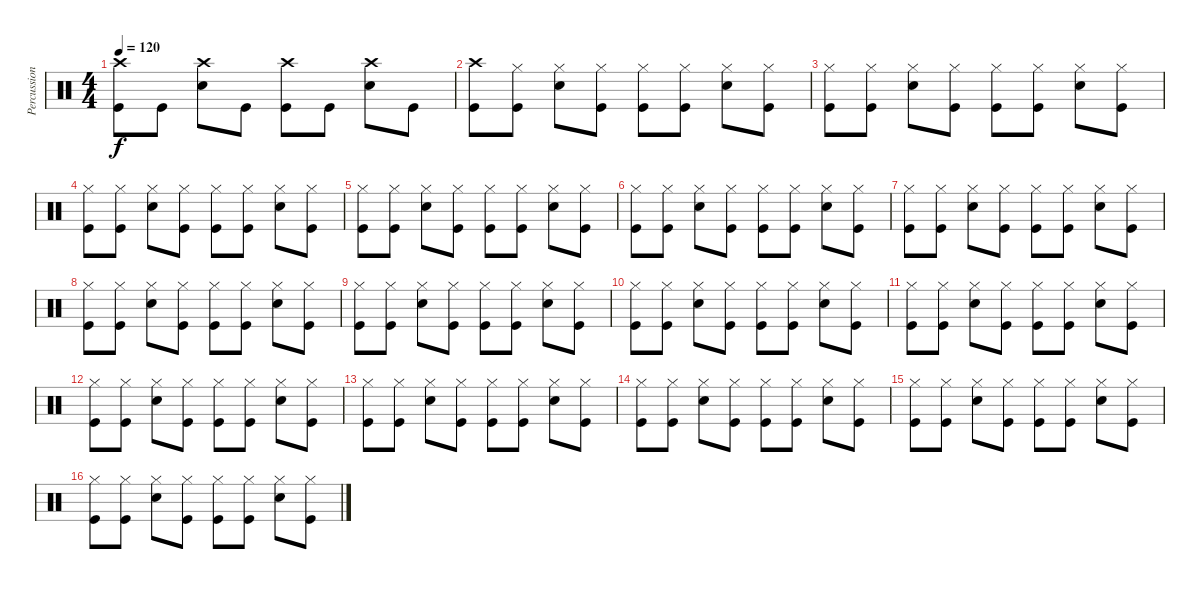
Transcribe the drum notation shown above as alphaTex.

\track ("Percussion" "Percussion") {instrument percussion}
\staff {score}
\articulation defaults
\ts (4 4)
\tempo 120
\clef neutral
\ks c
("Crash high (hit)" "Kick (hit)").8{dy f} "Kick (hit)".8 ("Crash high (hit)" "Snare (hit) 2").8 "Kick (hit)".8 ("Crash high (hit)" "Kick (hit)").8 "Kick (hit)".8 ("Crash high (hit)" "Snare (hit) 2").8 "Kick (hit)".8 |
("Crash high (hit)" "Kick (hit)").8 ("Hi-Hat (closed)" "Kick (hit)").8 ("Hi-Hat (closed)" "Snare (hit) 2").8 ("Hi-Hat (closed)" "Kick (hit)").8 ("Hi-Hat (closed)" "Kick (hit)").8 ("Hi-Hat (closed)" "Kick (hit)").8 ("Hi-Hat (closed)" "Snare (hit) 2").8 ("Hi-Hat (closed)" "Kick (hit)").8 |
("Hi-Hat (closed)" "Kick (hit)").8 ("Hi-Hat (closed)" "Kick (hit)").8 ("Hi-Hat (closed)" "Snare (hit) 2").8 ("Hi-Hat (closed)" "Kick (hit)").8 ("Hi-Hat (closed)" "Kick (hit)").8 ("Hi-Hat (closed)" "Kick (hit)").8 ("Hi-Hat (closed)" "Snare (hit) 2").8 ("Hi-Hat (closed)" "Kick (hit)").8 |
("Hi-Hat (closed)" "Kick (hit)").8 ("Hi-Hat (closed)" "Kick (hit)").8 ("Hi-Hat (closed)" "Snare (hit) 2").8 ("Hi-Hat (closed)" "Kick (hit)").8 ("Hi-Hat (closed)" "Kick (hit)").8 ("Hi-Hat (closed)" "Kick (hit)").8 ("Hi-Hat (closed)" "Snare (hit) 2").8 ("Hi-Hat (closed)" "Kick (hit)").8 |
("Hi-Hat (closed)" "Kick (hit)").8 ("Hi-Hat (closed)" "Kick (hit)").8 ("Hi-Hat (closed)" "Snare (hit) 2").8 ("Hi-Hat (closed)" "Kick (hit)").8 ("Hi-Hat (closed)" "Kick (hit)").8 ("Hi-Hat (closed)" "Kick (hit)").8 ("Hi-Hat (closed)" "Snare (hit) 2").8 ("Hi-Hat (closed)" "Kick (hit)").8 |
("Hi-Hat (closed)" "Kick (hit)").8 ("Hi-Hat (closed)" "Kick (hit)").8 ("Hi-Hat (closed)" "Snare (hit) 2").8 ("Hi-Hat (closed)" "Kick (hit)").8 ("Hi-Hat (closed)" "Kick (hit)").8 ("Hi-Hat (closed)" "Kick (hit)").8 ("Hi-Hat (closed)" "Snare (hit) 2").8 ("Hi-Hat (closed)" "Kick (hit)").8 |
("Hi-Hat (closed)" "Kick (hit)").8 ("Hi-Hat (closed)" "Kick (hit)").8 ("Hi-Hat (closed)" "Snare (hit) 2").8 ("Hi-Hat (closed)" "Kick (hit)").8 ("Hi-Hat (closed)" "Kick (hit)").8 ("Hi-Hat (closed)" "Kick (hit)").8 ("Hi-Hat (closed)" "Snare (hit) 2").8 ("Hi-Hat (closed)" "Kick (hit)").8 |
("Hi-Hat (closed)" "Kick (hit)").8 ("Hi-Hat (closed)" "Kick (hit)").8 ("Hi-Hat (closed)" "Snare (hit) 2").8 ("Hi-Hat (closed)" "Kick (hit)").8 ("Hi-Hat (closed)" "Kick (hit)").8 ("Hi-Hat (closed)" "Kick (hit)").8 ("Hi-Hat (closed)" "Snare (hit) 2").8 ("Hi-Hat (closed)" "Kick (hit)").8 |
("Hi-Hat (closed)" "Kick (hit)").8 ("Hi-Hat (closed)" "Kick (hit)").8 ("Hi-Hat (closed)" "Snare (hit) 2").8 ("Hi-Hat (closed)" "Kick (hit)").8 ("Hi-Hat (closed)" "Kick (hit)").8 ("Hi-Hat (closed)" "Kick (hit)").8 ("Hi-Hat (closed)" "Snare (hit) 2").8 ("Hi-Hat (closed)" "Kick (hit)").8 |
("Hi-Hat (closed)" "Kick (hit)").8 ("Hi-Hat (closed)" "Kick (hit)").8 ("Hi-Hat (closed)" "Snare (hit) 2").8 ("Hi-Hat (closed)" "Kick (hit)").8 ("Hi-Hat (closed)" "Kick (hit)").8 ("Hi-Hat (closed)" "Kick (hit)").8 ("Hi-Hat (closed)" "Snare (hit) 2").8 ("Hi-Hat (closed)" "Kick (hit)").8 |
("Hi-Hat (closed)" "Kick (hit)").8 ("Hi-Hat (closed)" "Kick (hit)").8 ("Hi-Hat (closed)" "Snare (hit) 2").8 ("Hi-Hat (closed)" "Kick (hit)").8 ("Hi-Hat (closed)" "Kick (hit)").8 ("Hi-Hat (closed)" "Kick (hit)").8 ("Hi-Hat (closed)" "Snare (hit) 2").8 ("Hi-Hat (closed)" "Kick (hit)").8 |
("Hi-Hat (closed)" "Kick (hit)").8 ("Hi-Hat (closed)" "Kick (hit)").8 ("Hi-Hat (closed)" "Snare (hit) 2").8 ("Hi-Hat (closed)" "Kick (hit)").8 ("Hi-Hat (closed)" "Kick (hit)").8 ("Hi-Hat (closed)" "Kick (hit)").8 ("Hi-Hat (closed)" "Snare (hit) 2").8 ("Hi-Hat (closed)" "Kick (hit)").8 |
("Hi-Hat (closed)" "Kick (hit)").8 ("Hi-Hat (closed)" "Kick (hit)").8 ("Hi-Hat (closed)" "Snare (hit) 2").8 ("Hi-Hat (closed)" "Kick (hit)").8 ("Hi-Hat (closed)" "Kick (hit)").8 ("Hi-Hat (closed)" "Kick (hit)").8 ("Hi-Hat (closed)" "Snare (hit) 2").8 ("Hi-Hat (closed)" "Kick (hit)").8 |
("Hi-Hat (closed)" "Kick (hit)").8 ("Hi-Hat (closed)" "Kick (hit)").8 ("Hi-Hat (closed)" "Snare (hit) 2").8 ("Hi-Hat (closed)" "Kick (hit)").8 ("Hi-Hat (closed)" "Kick (hit)").8 ("Hi-Hat (closed)" "Kick (hit)").8 ("Hi-Hat (closed)" "Snare (hit) 2").8 ("Hi-Hat (closed)" "Kick (hit)").8 |
("Hi-Hat (closed)" "Kick (hit)").8 ("Hi-Hat (closed)" "Kick (hit)").8 ("Hi-Hat (closed)" "Snare (hit) 2").8 ("Hi-Hat (closed)" "Kick (hit)").8 ("Hi-Hat (closed)" "Kick (hit)").8 ("Hi-Hat (closed)" "Kick (hit)").8 ("Hi-Hat (closed)" "Snare (hit) 2").8 ("Hi-Hat (closed)" "Kick (hit)").8 |
("Hi-Hat (closed)" "Kick (hit)").8 ("Hi-Hat (closed)" "Kick (hit)").8 ("Hi-Hat (closed)" "Snare (hit) 2").8 ("Hi-Hat (closed)" "Kick (hit)").8 ("Hi-Hat (closed)" "Kick (hit)").8 ("Hi-Hat (closed)" "Kick (hit)").8 ("Hi-Hat (closed)" "Snare (hit) 2").8 ("Hi-Hat (closed)" "Kick (hit)").8
